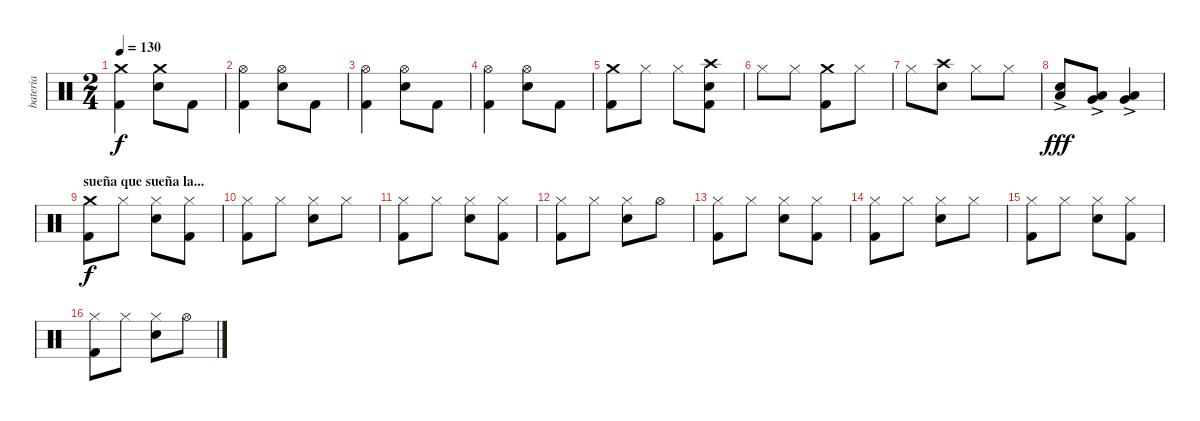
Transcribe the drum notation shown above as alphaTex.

\track ("bateria" "bateria") {instrument percussion}
\staff {score}
\articulation defaults
\ts (2 4)
\tempo 130
\clef neutral
\ks c
("Crash medium (hit)" "Kick (hit) 2").4{dy f} ("Crash medium (hit)" "Electric Snare (hit)").8 "Kick (hit) 2".8 |
("Hi-Hat (open)" "Kick (hit) 2").4 ("Hi-Hat (open)" "Electric Snare (hit)").8 "Kick (hit) 2".8 |
("Hi-Hat (open)" "Kick (hit) 2").4 ("Hi-Hat (open)" "Electric Snare (hit)").8 "Kick (hit) 2".8 |
("Hi-Hat (open)" "Kick (hit) 2").4 ("Hi-Hat (open)" "Electric Snare (hit)").8 "Kick (hit) 2".8 |
("Crash medium (hit)" "Kick (hit) 2").8 "Hi-Hat (closed)".8 "Hi-Hat (closed)".8 ("Crash high (hit)" "Electric Snare (hit)" "Kick (hit) 2").8 |
"Hi-Hat (closed)".8 "Hi-Hat (closed)".8 ("Crash medium (hit)" "Kick (hit) 2").8 "Hi-Hat (closed)".8 |
"Hi-Hat (closed)".8 ("Crash high (hit)" "Electric Snare (hit)").8 "Hi-Hat (closed)".8 "Hi-Hat (closed)".8 |
("Low Floor Tom (hit)" "Electric Snare (hit)"{ac}).8{dy fff} ("Low Floor Tom (hit)" "Very Low Tom (hit)"{ac}).8 ("Low Floor Tom (hit)" "Very Low Tom (hit)"{ac}).4 |
\section ("" "sueña que sueña la...")
("Crash medium (hit)" "Kick (hit) 2").8{dy f} "Hi-Hat (closed)".8 ("Hi-Hat (closed)" "Electric Snare (hit)").8 ("Hi-Hat (closed)" "Kick (hit) 2").8 |
("Hi-Hat (closed)" "Kick (hit) 2").8 "Hi-Hat (closed)".8 ("Hi-Hat (closed)" "Electric Snare (hit)").8 "Hi-Hat (closed)".8 |
("Hi-Hat (closed)" "Kick (hit) 2").8 "Hi-Hat (closed)".8 ("Hi-Hat (closed)" "Electric Snare (hit)").8 ("Hi-Hat (closed)" "Kick (hit) 2").8 |
("Hi-Hat (closed)" "Kick (hit) 2").8 "Hi-Hat (closed)".8 ("Hi-Hat (closed)" "Electric Snare (hit)").8 "Hi-Hat (open)".8 |
("Hi-Hat (closed)" "Kick (hit) 2").8 "Hi-Hat (closed)".8 ("Hi-Hat (closed)" "Electric Snare (hit)").8 ("Hi-Hat (closed)" "Kick (hit) 2").8 |
("Hi-Hat (closed)" "Kick (hit) 2").8 "Hi-Hat (closed)".8 ("Hi-Hat (closed)" "Electric Snare (hit)").8 "Hi-Hat (closed)".8 |
("Hi-Hat (closed)" "Kick (hit) 2").8 "Hi-Hat (closed)".8 ("Hi-Hat (closed)" "Electric Snare (hit)").8 ("Hi-Hat (closed)" "Kick (hit) 2").8 |
("Hi-Hat (closed)" "Kick (hit) 2").8 "Hi-Hat (closed)".8 ("Hi-Hat (closed)" "Electric Snare (hit)").8 "Hi-Hat (open)".8
